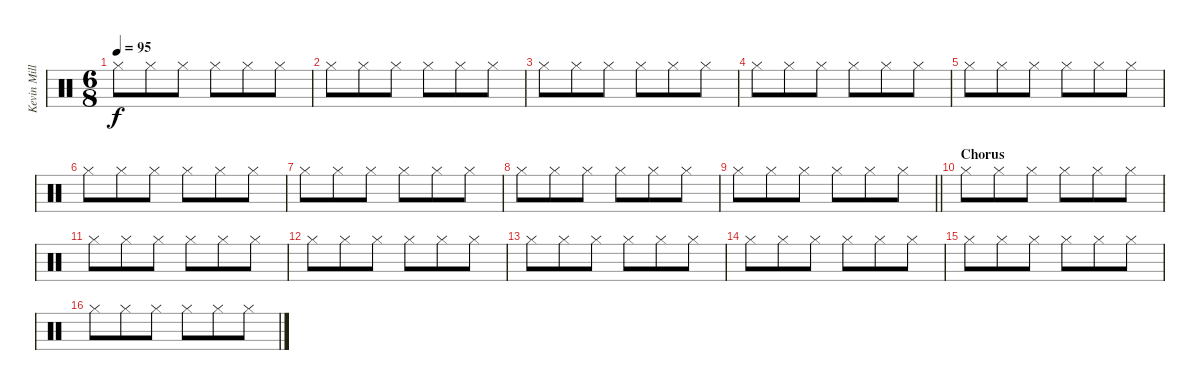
\track ("Kevin Miller (Drums)" "Kevin Mill") {instrument percussion}
\staff {score}
\articulation defaults
\ts (6 8)
\tempo 95
\clef neutral
\ks c "Hi-Hat (closed)".8{dy f} "Hi-Hat (closed)".8 "Hi-Hat (closed)".8 "Hi-Hat (closed)".8 "Hi-Hat (closed)".8 "Hi-Hat (closed)".8
|
"Hi-Hat (closed)".8 "Hi-Hat (closed)".8 "Hi-Hat (closed)".8 "Hi-Hat (closed)".8 "Hi-Hat (closed)".8 "Hi-Hat (closed)".8 |
"Hi-Hat (closed)".8 "Hi-Hat (closed)".8 "Hi-Hat (closed)".8 "Hi-Hat (closed)".8 "Hi-Hat (closed)".8 "Hi-Hat (closed)".8 |
"Hi-Hat (closed)".8 "Hi-Hat (closed)".8 "Hi-Hat (closed)".8 "Hi-Hat (closed)".8 "Hi-Hat (closed)".8 "Hi-Hat (closed)".8 |
"Hi-Hat (closed)".8 "Hi-Hat (closed)".8 "Hi-Hat (closed)".8 "Hi-Hat (closed)".8 "Hi-Hat (closed)".8 "Hi-Hat (closed)".8 |
"Hi-Hat (closed)".8 "Hi-Hat (closed)".8 "Hi-Hat (closed)".8 "Hi-Hat (closed)".8 "Hi-Hat (closed)".8 "Hi-Hat (closed)".8 |
"Hi-Hat (closed)".8 "Hi-Hat (closed)".8 "Hi-Hat (closed)".8 "Hi-Hat (closed)".8 "Hi-Hat (closed)".8 "Hi-Hat (closed)".8 |
"Hi-Hat (closed)".8 "Hi-Hat (closed)".8 "Hi-Hat (closed)".8 "Hi-Hat (closed)".8 "Hi-Hat (closed)".8 "Hi-Hat (closed)".8 |
\barLineRight lightlight "Hi-Hat (closed)".8 "Hi-Hat (closed)".8 "Hi-Hat (closed)".8 "Hi-Hat (closed)".8 "Hi-Hat (closed)".8 "Hi-Hat (closed)".8
|
\section ("" "Chorus")
"Hi-Hat (closed)".8 "Hi-Hat (closed)".8 "Hi-Hat (closed)".8 "Hi-Hat (closed)".8 "Hi-Hat (closed)".8 "Hi-Hat (closed)".8 |
"Hi-Hat (closed)".8 "Hi-Hat (closed)".8 "Hi-Hat (closed)".8 "Hi-Hat (closed)".8 "Hi-Hat (closed)".8 "Hi-Hat (closed)".8 |
"Hi-Hat (closed)".8 "Hi-Hat (closed)".8 "Hi-Hat (closed)".8 "Hi-Hat (closed)".8 "Hi-Hat (closed)".8 "Hi-Hat (closed)".8 |
"Hi-Hat (closed)".8 "Hi-Hat (closed)".8 "Hi-Hat (closed)".8 "Hi-Hat (closed)".8 "Hi-Hat (closed)".8 "Hi-Hat (closed)".8 |
"Hi-Hat (closed)".8 "Hi-Hat (closed)".8 "Hi-Hat (closed)".8 "Hi-Hat (closed)".8 "Hi-Hat (closed)".8 "Hi-Hat (closed)".8 |
"Hi-Hat (closed)".8 "Hi-Hat (closed)".8 "Hi-Hat (closed)".8 "Hi-Hat (closed)".8 "Hi-Hat (closed)".8 "Hi-Hat (closed)".8 |
"Hi-Hat (closed)".8 "Hi-Hat (closed)".8 "Hi-Hat (closed)".8 "Hi-Hat (closed)".8 "Hi-Hat (closed)".8 "Hi-Hat (closed)".8
